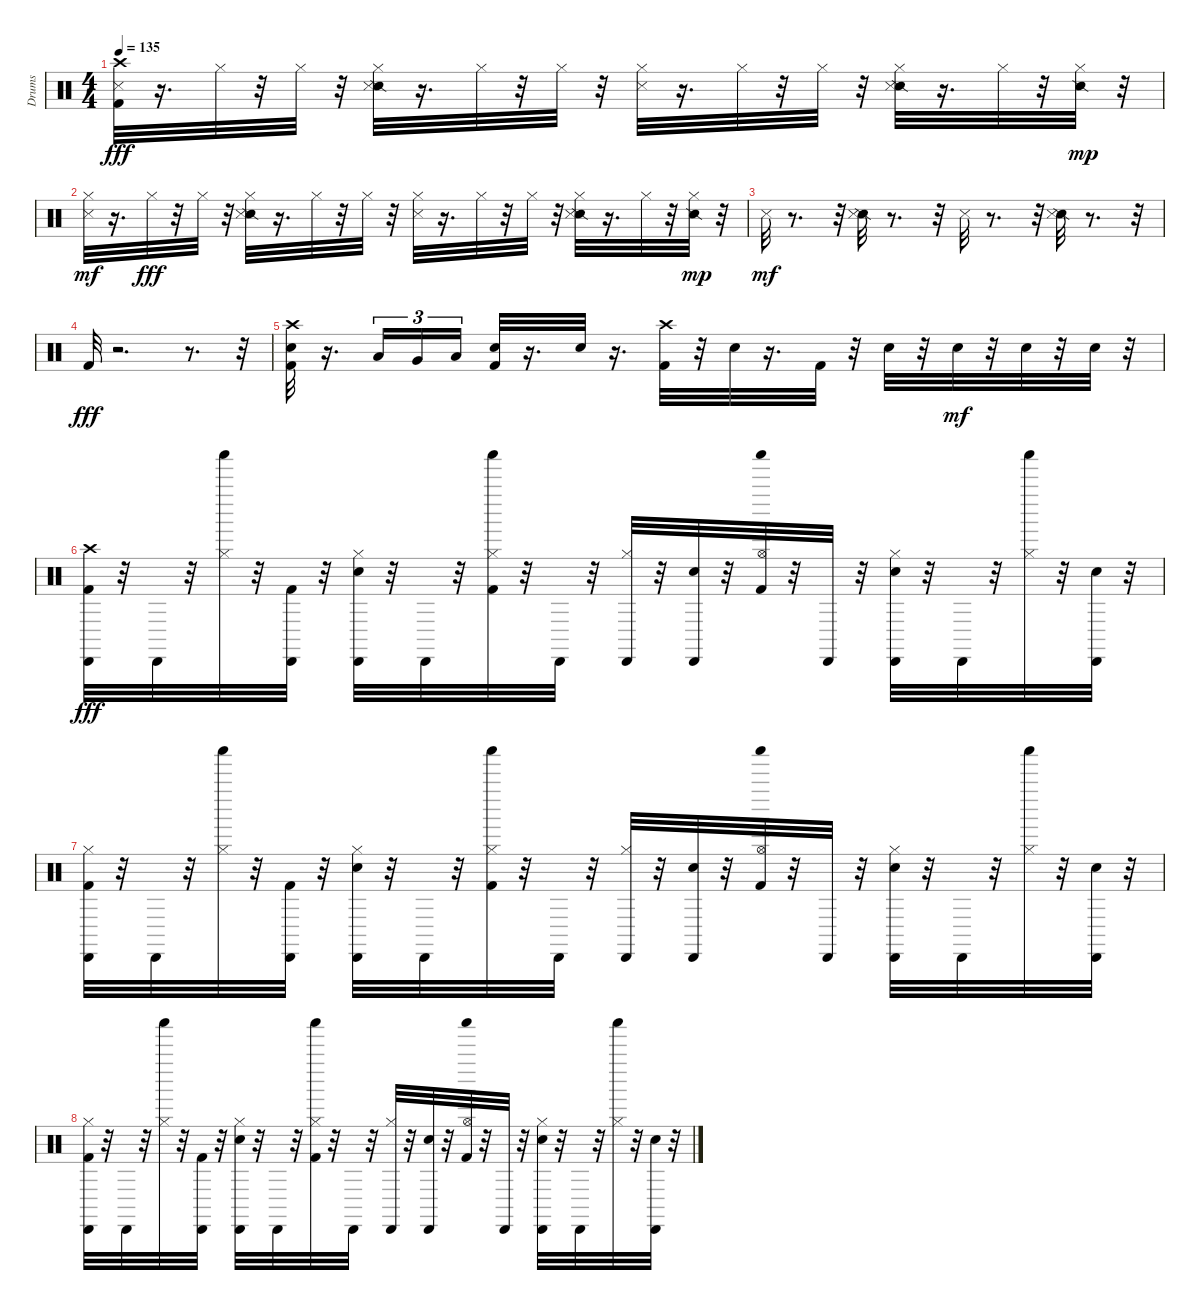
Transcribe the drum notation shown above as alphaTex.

\track ("Drums" "Drums") {instrument percussion}
\staff {score}
\articulation defaults
\ts (4 4)
\tempo 135
\clef neutral
\ks c
("Crash high (hit)" "Metronome (hit)" "Kick (hit) 2").32{dy fff} r.16{d} "Hi-Hat (closed)".32 r.32 "Hi-Hat (closed)".32 r.32 ("Snare (side stick) 2" "Metronome (hit)" "Hi-Hat (closed)").32 r.16{d} "Hi-Hat (closed)".32 r.32 "Hi-Hat (closed)".32 r.32 ("Metronome (hit)" "Hi-Hat (closed)").32 r.16{d} "Hi-Hat (closed)".32 r.32 "Hi-Hat (closed)".32 r.32 ("Snare (side stick) 2" "Metronome (hit)" "Hi-Hat (closed)").32 r.16{d} "Hi-Hat (closed)".32 r.32 ("Hi-Hat (closed)" "Snare (side stick) 2").32{dy mp} r.32 |
("Hi-Hat (closed)" "Metronome (hit)").32{dy mf} r.16{d} "Hi-Hat (closed)".32{dy fff} r.32 "Hi-Hat (closed)".32 r.32 ("Snare (side stick) 2" "Metronome (hit)" "Hi-Hat (closed)").32 r.16{d} "Hi-Hat (closed)".32 r.32 "Hi-Hat (closed)".32 r.32 ("Metronome (hit)" "Hi-Hat (closed)").32 r.16{d} "Hi-Hat (closed)".32 r.32 "Hi-Hat (closed)".32 r.32 ("Snare (side stick) 2" "Metronome (hit)" "Hi-Hat (closed)").32 r.16{d} "Hi-Hat (closed)".32 r.32 ("Hi-Hat (closed)" "Snare (side stick) 2").32{dy mp} r.32 |
"Metronome (hit)".32{dy mf} r.8{d} r.32 ("Snare (side stick) 2" "Metronome (hit)").32 r.8{d} r.32 "Metronome (hit)".32 r.8{d} r.32 ("Snare (side stick) 2" "Metronome (hit)").32 r.8{d} r.32 |
"Kick (hit) 2".32{dy fff} r.2{d} r.8{d} r.32 |
("Snare (hit) 2" "Crash high (hit)" "Kick (hit) 2").32 r.16{d} "Low Tom (hit)".16{tu (3 2)} "Very Low Tom (hit)".16{tu (3 2)} "Low Floor Tom (hit)".16{tu (3 2)} ("Snare (hit) 2" "Kick (hit) 2").32 r.16{d} "Snare (hit) 2".32 r.16{d} ("Crash high (hit)" "Kick (hit) 2").32 r.32 "Snare (hit) 2".32 r.16{d} "Kick (hit) 2".32 r.32 "Snare (hit) 2".32 r.32 "Snare (hit) 2".32{dy mf} r.32 "Snare (hit) 2".32 r.32 "Snare (hit) 2".32 r.32 |
("Crash high (hit)" "Kick (hit) 2" "Cabasa (hit)").32{dy fff} r.32 "Cabasa (hit)".32 r.32 ("Shaker (hit)" "Hi-Hat (closed)").32 r.32 ("Kick (hit) 2" "Cabasa (hit)").32 r.32 ("Snare (hit) 2" "Hi-Hat (closed)" "Cabasa (hit)").32 r.32 "Cabasa (hit)".32 r.32 ("Kick (hit) 2" "Shaker (hit)" "Hi-Hat (closed)").32 r.32 "Cabasa (hit)".32 r.32 ("Hi-Hat (closed)" "Cabasa (hit)").32 r.32 ("Snare (hit) 2" "Cabasa (hit)").32 r.32 ("Kick (hit) 2" "Shaker (hit)" "Hi-Hat (open)").32 r.32 "Cabasa (hit)".32 r.32 ("Snare (hit) 2" "Hi-Hat (closed)" "Cabasa (hit)").32 r.32 "Cabasa (hit)".32 r.32 ("Shaker (hit)" "Hi-Hat (closed)").32 r.32 ("Snare (hit) 2" "Cabasa (hit)").32 r.32 |
("Hi-Hat (closed)" "Kick (hit) 2" "Cabasa (hit)").32 r.32 "Cabasa (hit)".32 r.32 ("Shaker (hit)" "Hi-Hat (closed)").32 r.32 ("Kick (hit) 2" "Cabasa (hit)").32 r.32 ("Snare (hit) 2" "Hi-Hat (closed)" "Cabasa (hit)").32 r.32 "Cabasa (hit)".32 r.32 ("Kick (hit) 2" "Shaker (hit)" "Hi-Hat (closed)").32 r.32 "Cabasa (hit)".32 r.32 ("Hi-Hat (closed)" "Cabasa (hit)").32 r.32 ("Snare (hit) 2" "Cabasa (hit)").32 r.32 ("Kick (hit) 2" "Shaker (hit)" "Hi-Hat (open)").32 r.32 "Cabasa (hit)".32 r.32 ("Snare (hit) 2" "Hi-Hat (closed)" "Cabasa (hit)").32 r.32 "Cabasa (hit)".32 r.32 ("Shaker (hit)" "Hi-Hat (closed)").32 r.32 ("Snare (hit) 2" "Cabasa (hit)").32 r.32 |
("Hi-Hat (closed)" "Kick (hit) 2" "Cabasa (hit)").32 r.32 "Cabasa (hit)".32 r.32 ("Shaker (hit)" "Hi-Hat (closed)").32 r.32 ("Kick (hit) 2" "Cabasa (hit)").32 r.32 ("Snare (hit) 2" "Hi-Hat (closed)" "Cabasa (hit)").32 r.32 "Cabasa (hit)".32 r.32 ("Kick (hit) 2" "Shaker (hit)" "Hi-Hat (closed)").32 r.32 "Cabasa (hit)".32 r.32 ("Hi-Hat (closed)" "Cabasa (hit)").32 r.32 ("Snare (hit) 2" "Cabasa (hit)").32 r.32 ("Kick (hit) 2" "Shaker (hit)" "Hi-Hat (open)").32 r.32 "Cabasa (hit)".32 r.32 ("Snare (hit) 2" "Hi-Hat (closed)" "Cabasa (hit)").32 r.32 "Cabasa (hit)".32 r.32 ("Shaker (hit)" "Hi-Hat (closed)").32 r.32 ("Snare (hit) 2" "Cabasa (hit)").32 r.32
